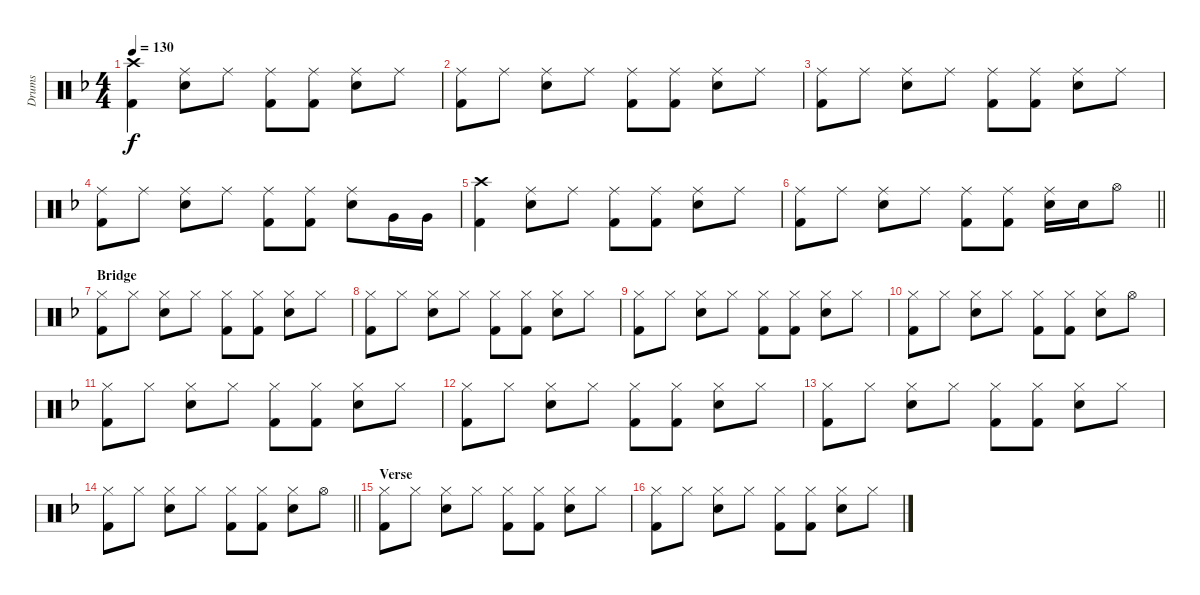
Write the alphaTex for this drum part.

\track ("Drums" "Drums") {instrument percussion}
\staff {score}
\articulation defaults
\ts (4 4)
\tempo 130
\clef neutral
\ks f
("Crash high (hit)" "Kick (hit) 2").4{dy f} ("Ride (middle)" "Snare (hit) 2").8 "Ride (middle)".8 ("Ride (middle)" "Kick (hit) 2").8 ("Ride (middle)" "Kick (hit) 2").8 ("Ride (middle)" "Snare (hit) 2").8 "Ride (middle)".8 |
("Ride (middle)" "Kick (hit) 2").8 "Ride (middle)".8 ("Ride (middle)" "Snare (hit) 2").8 "Ride (middle)".8 ("Ride (middle)" "Kick (hit) 2").8 ("Ride (middle)" "Kick (hit) 2").8 ("Ride (middle)" "Snare (hit) 2").8 "Ride (middle)".8 |
("Ride (middle)" "Kick (hit) 2").8 "Ride (middle)".8 ("Ride (middle)" "Snare (hit) 2").8 "Ride (middle)".8 ("Ride (middle)" "Kick (hit) 2").8 ("Ride (middle)" "Kick (hit) 2").8 ("Ride (middle)" "Snare (hit) 2").8 "Ride (middle)".8 |
("Ride (middle)" "Kick (hit) 2").8 "Ride (middle)".8 ("Ride (middle)" "Snare (hit) 2").8 "Ride (middle)".8 ("Ride (middle)" "Kick (hit) 2").8 ("Ride (middle)" "Kick (hit) 2").8 ("Ride (middle)" "Snare (hit) 2").8 "Very Low Tom (hit)".16 "Very Low Tom (hit)".16 |
("Crash high (hit)" "Kick (hit) 2").4 ("Ride (middle)" "Snare (hit) 2").8 "Ride (middle)".8 ("Ride (middle)" "Kick (hit) 2").8 ("Ride (middle)" "Kick (hit) 2").8 ("Ride (middle)" "Snare (hit) 2").8 "Ride (middle)".8 |
\barLineRight lightlight
("Ride (middle)" "Kick (hit) 2").8 "Ride (middle)".8 ("Ride (middle)" "Snare (hit) 2").8 "Ride (middle)".8 ("Ride (middle)" "Kick (hit) 2").8 ("Ride (middle)" "Kick (hit) 2").8 ("Ride (middle)" "Snare (hit) 2").16 "Snare (hit) 2".16 "Hi-Hat (open)".8 |
\section ("" "Bridge")
("Hi-Hat (closed)" "Kick (hit) 2").8 "Hi-Hat (closed)".8 ("Hi-Hat (closed)" "Snare (hit) 2").8 "Hi-Hat (closed)".8 ("Hi-Hat (closed)" "Kick (hit) 2").8 ("Hi-Hat (closed)" "Kick (hit) 2").8 ("Hi-Hat (closed)" "Snare (hit) 2").8 "Hi-Hat (closed)".8 |
("Hi-Hat (closed)" "Kick (hit) 2").8 "Hi-Hat (closed)".8 ("Hi-Hat (closed)" "Snare (hit) 2").8 "Hi-Hat (closed)".8 ("Hi-Hat (closed)" "Kick (hit) 2").8 ("Hi-Hat (closed)" "Kick (hit) 2").8 ("Hi-Hat (closed)" "Snare (hit) 2").8 "Hi-Hat (closed)".8 |
("Hi-Hat (closed)" "Kick (hit) 2").8 "Hi-Hat (closed)".8 ("Hi-Hat (closed)" "Snare (hit) 2").8 "Hi-Hat (closed)".8 ("Hi-Hat (closed)" "Kick (hit) 2").8 ("Hi-Hat (closed)" "Kick (hit) 2").8 ("Hi-Hat (closed)" "Snare (hit) 2").8 "Hi-Hat (closed)".8 |
("Hi-Hat (closed)" "Kick (hit) 2").8 "Hi-Hat (closed)".8 ("Hi-Hat (closed)" "Snare (hit) 2").8 "Hi-Hat (closed)".8 ("Hi-Hat (closed)" "Kick (hit) 2").8 ("Hi-Hat (closed)" "Kick (hit) 2").8 ("Hi-Hat (closed)" "Snare (hit) 2").8 "Hi-Hat (open)".8 |
("Hi-Hat (closed)" "Kick (hit) 2").8 "Hi-Hat (closed)".8 ("Hi-Hat (closed)" "Snare (hit) 2").8 "Hi-Hat (closed)".8 ("Hi-Hat (closed)" "Kick (hit) 2").8 ("Hi-Hat (closed)" "Kick (hit) 2").8 ("Hi-Hat (closed)" "Snare (hit) 2").8 "Hi-Hat (closed)".8 |
("Hi-Hat (closed)" "Kick (hit) 2").8 "Hi-Hat (closed)".8 ("Hi-Hat (closed)" "Snare (hit) 2").8 "Hi-Hat (closed)".8 ("Hi-Hat (closed)" "Kick (hit) 2").8 ("Hi-Hat (closed)" "Kick (hit) 2").8 ("Hi-Hat (closed)" "Snare (hit) 2").8 "Hi-Hat (closed)".8 |
("Hi-Hat (closed)" "Kick (hit) 2").8 "Hi-Hat (closed)".8 ("Hi-Hat (closed)" "Snare (hit) 2").8 "Hi-Hat (closed)".8 ("Hi-Hat (closed)" "Kick (hit) 2").8 ("Hi-Hat (closed)" "Kick (hit) 2").8 ("Hi-Hat (closed)" "Snare (hit) 2").8 "Hi-Hat (closed)".8 |
\barLineRight lightlight
("Hi-Hat (closed)" "Kick (hit) 2").8 "Hi-Hat (closed)".8 ("Hi-Hat (closed)" "Snare (hit) 2").8 "Hi-Hat (closed)".8 ("Hi-Hat (closed)" "Kick (hit) 2").8 ("Hi-Hat (closed)" "Kick (hit) 2").8 ("Hi-Hat (closed)" "Snare (hit) 2").8 "Hi-Hat (open)".8 |
\section ("" "Verse")
("Hi-Hat (closed)" "Kick (hit) 2").8 "Hi-Hat (closed)".8 ("Hi-Hat (closed)" "Snare (hit) 2").8 "Hi-Hat (closed)".8 ("Hi-Hat (closed)" "Kick (hit) 2").8 ("Hi-Hat (closed)" "Kick (hit) 2").8 ("Hi-Hat (closed)" "Snare (hit) 2").8 "Hi-Hat (closed)".8 |
("Hi-Hat (closed)" "Kick (hit) 2").8 "Hi-Hat (closed)".8 ("Hi-Hat (closed)" "Snare (hit) 2").8 "Hi-Hat (closed)".8 ("Hi-Hat (closed)" "Kick (hit) 2").8 ("Hi-Hat (closed)" "Kick (hit) 2").8 ("Hi-Hat (closed)" "Snare (hit) 2").8 "Hi-Hat (closed)".8
